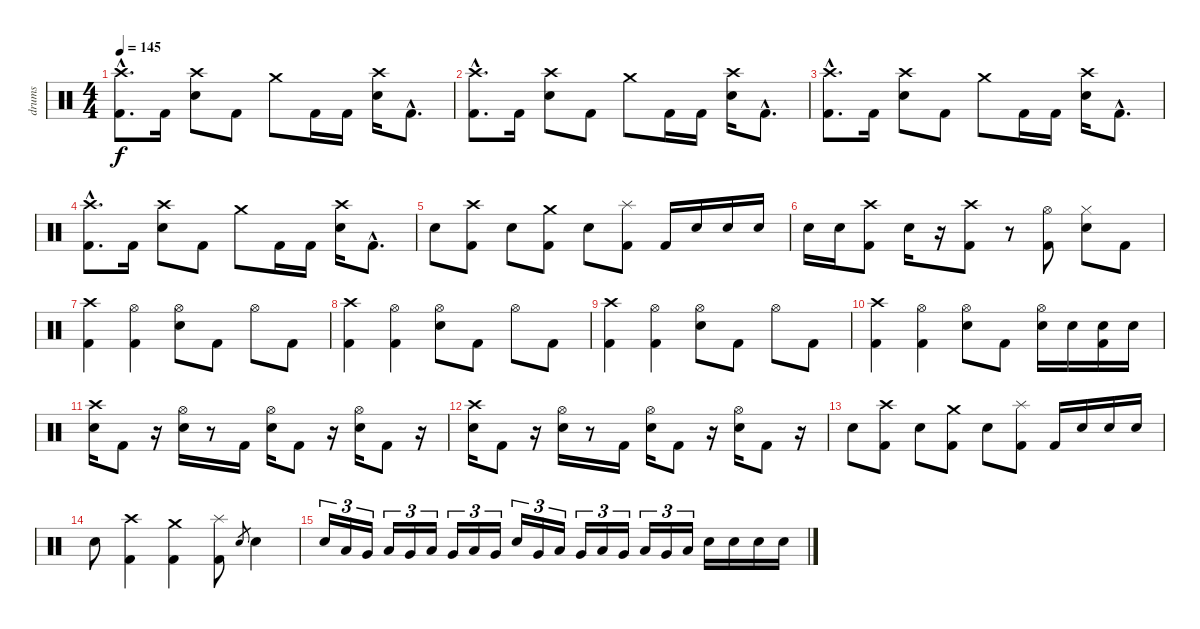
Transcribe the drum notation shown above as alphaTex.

\track ("drums" "drums") {instrument percussion}
\staff {score}
\articulation defaults
\ts (4 4)
\tempo 145
\clef neutral
\ks c
("Crash high (hit)"{hac} "Kick (hit) 2"{hac}).8{d dy f} "Kick (hit) 2".16 ("Crash high (hit)" "Electric Snare (hit)").8 "Kick (hit) 2".8 "Crash medium (hit)".8 "Kick (hit) 2".16 "Kick (hit) 2".16 ("Crash high (hit)" "Electric Snare (hit)").16 "Kick (hit) 2"{hac}.8{d} |
("Crash high (hit)"{hac} "Kick (hit) 2"{hac}).8{d} "Kick (hit) 2".16 ("Crash high (hit)" "Electric Snare (hit)").8 "Kick (hit) 2".8 "Crash medium (hit)".8 "Kick (hit) 2".16 "Kick (hit) 2".16 ("Crash high (hit)" "Electric Snare (hit)").16 "Kick (hit) 2"{hac}.8{d} |
("Crash high (hit)"{hac} "Kick (hit) 2"{hac}).8{d} "Kick (hit) 2".16 ("Crash high (hit)" "Electric Snare (hit)").8 "Kick (hit) 2".8 "Crash medium (hit)".8 "Kick (hit) 2".16 "Kick (hit) 2".16 ("Crash high (hit)" "Electric Snare (hit)").16 "Kick (hit) 2"{hac}.8{d} |
("Crash high (hit)"{hac} "Kick (hit) 2"{hac}).8{d} "Kick (hit) 2".16 ("Crash high (hit)" "Electric Snare (hit)").8 "Kick (hit) 2".8 "Crash medium (hit)".8 "Kick (hit) 2".16 "Kick (hit) 2".16 ("Crash high (hit)" "Electric Snare (hit)").16 "Kick (hit) 2"{hac}.8{d} |
"Electric Snare (hit)".8 ("Crash high (hit)" "Kick (hit) 2").8 "Electric Snare (hit)".8 ("Crash medium (hit)" "Kick (hit) 2").8 "Electric Snare (hit)".8 ("Splash (hit)" "Kick (hit) 2").8 "Kick (hit) 2".16 "Electric Snare (hit)".16 "Electric Snare (hit)".16 "Electric Snare (hit)".16 |
"Electric Snare (hit)".16 "Electric Snare (hit)".16 ("Crash high (hit)" "Kick (hit) 2").8 "Electric Snare (hit)".16 r.16 ("Crash high (hit)" "Kick (hit) 2").8 r.8 ("Hi-Hat (open)" "Kick (hit) 2").8 ("Hi-Hat (closed)" "Electric Snare (hit)").8 "Kick (hit) 2".8 |
("Crash high (hit)" "Kick (hit) 2").4 ("Hi-Hat (open)" "Kick (hit) 2").4 ("Hi-Hat (open)" "Electric Snare (hit)").8 "Kick (hit) 2".8 "Hi-Hat (open)".8 "Kick (hit) 2".8 |
("Crash high (hit)" "Kick (hit) 2").4 ("Hi-Hat (open)" "Kick (hit) 2").4 ("Hi-Hat (open)" "Electric Snare (hit)").8 "Kick (hit) 2".8 "Hi-Hat (open)".8 "Kick (hit) 2".8 |
("Crash high (hit)" "Kick (hit) 2").4 ("Hi-Hat (open)" "Kick (hit) 2").4 ("Hi-Hat (open)" "Electric Snare (hit)").8 "Kick (hit) 2".8 "Hi-Hat (open)".8 "Kick (hit) 2".8 |
("Crash high (hit)" "Kick (hit) 2").4 ("Hi-Hat (open)" "Kick (hit) 2").4 ("Hi-Hat (open)" "Electric Snare (hit)").8 "Kick (hit) 2".8 ("Hi-Hat (open)" "Electric Snare (hit)").16 "Electric Snare (hit)".16 ("Electric Snare (hit)" "Kick (hit) 2").16 "Electric Snare (hit)".16 |
("Crash high (hit)" "Electric Snare (hit)").16 "Kick (hit) 2".8 r.16 ("Hi-Hat (open)" "Electric Snare (hit)").16 r.8 "Kick (hit) 2".16 ("Hi-Hat (open)" "Electric Snare (hit)").16 "Kick (hit) 2".8 r.16 ("Hi-Hat (open)" "Electric Snare (hit)").16 "Kick (hit) 2".8 r.16 |
("Crash high (hit)" "Electric Snare (hit)").16 "Kick (hit) 2".8 r.16 ("Hi-Hat (open)" "Electric Snare (hit)").16 r.8 "Kick (hit) 2".16 ("Hi-Hat (open)" "Electric Snare (hit)").16 "Kick (hit) 2".8 r.16 ("Hi-Hat (open)" "Electric Snare (hit)").16 "Kick (hit) 2".8 r.16 |
"Electric Snare (hit)".8 ("Crash high (hit)" "Kick (hit) 2").8 "Electric Snare (hit)".8 ("Crash medium (hit)" "Kick (hit) 2").8 "Electric Snare (hit)".8 ("Splash (hit)" "Kick (hit) 2").8 "Kick (hit) 2".16 "Electric Snare (hit)".16 "Electric Snare (hit)".16 "Electric Snare (hit)".16 |
"Electric Snare (hit)".8 ("Crash high (hit)" "Kick (hit) 2").4 ("Crash medium (hit)" "Kick (hit) 2").4 ("Splash (hit)" "Kick (hit) 2").8 "Electric Snare (hit)".8{gr} "Electric Snare (hit)".4 |
"Electric Snare (hit)".16{tu (3 2)} "Low Tom (hit)".16{tu (3 2)} "Very Low Tom (hit)".16{tu (3 2)} "Low Tom (hit)".16{tu (3 2)} "Very Low Tom (hit)".16{tu (3 2)} "Low Tom (hit)".16{tu (3 2)} "Very Low Tom (hit)".16{tu (3 2)} "Low Tom (hit)".16{tu (3 2)} "Very Low Tom (hit)".16{tu (3 2)} "Electric Snare (hit)".16{tu (3 2)} "Very Low Tom (hit)".16{tu (3 2)} "Low Tom (hit)".16{tu (3 2)} "Very Low Tom (hit)".16{tu (3 2)} "Low Tom (hit)".16{tu (3 2)} "Very Low Tom (hit)".16{tu (3 2)} "Low Tom (hit)".16{tu (3 2)} "Very Low Tom (hit)".16{tu (3 2)} "Low Tom (hit)".16{tu (3 2)} "Electric Snare (hit)".16 "Electric Snare (hit)".16 "Electric Snare (hit)".16 "Electric Snare (hit)".16
